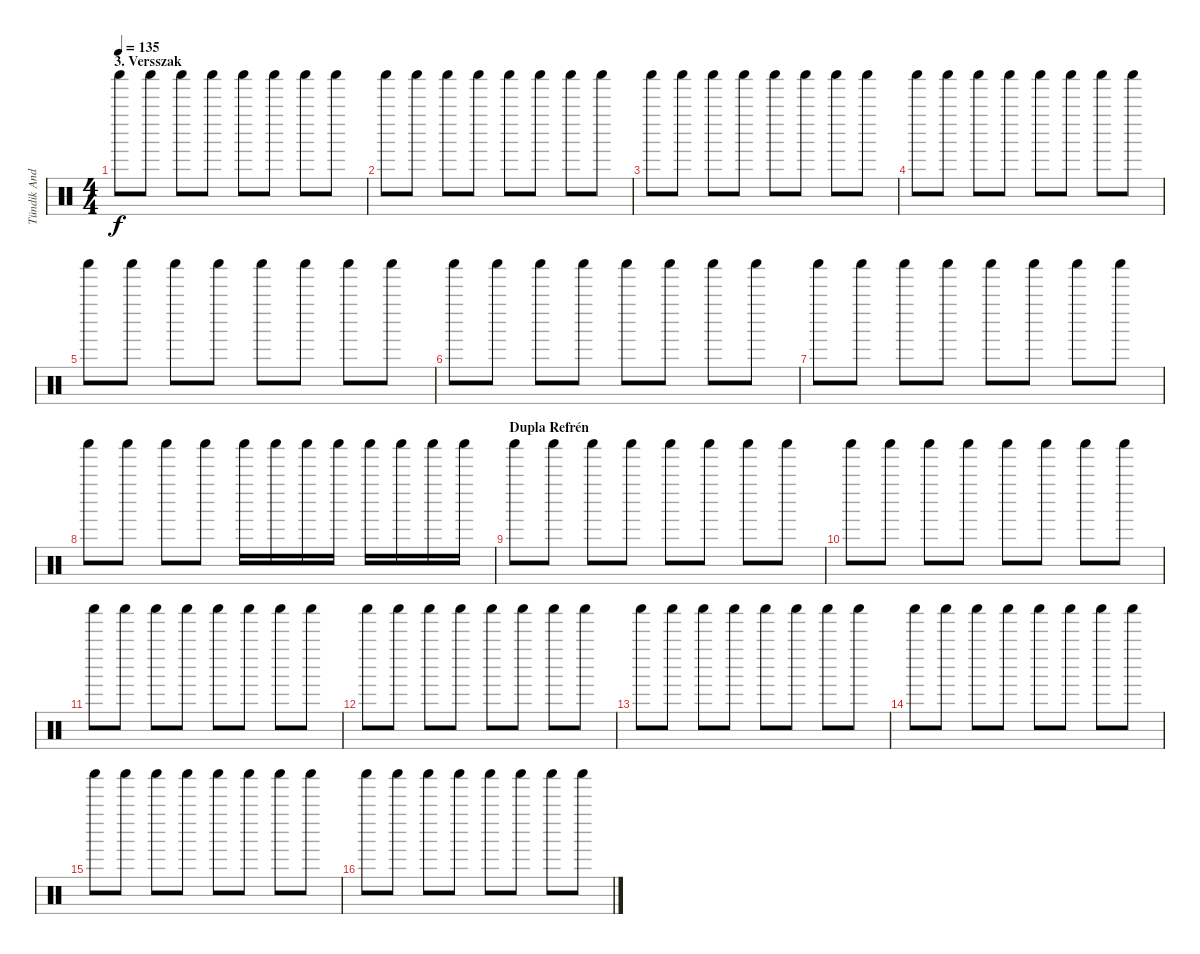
\track ("Tündik András - Shaker" "Tündik And") {instrument percussion}
\staff {score}
\articulation defaults
\ts (4 4)
\section ("" "3. Versszak")
\tempo 135
\clef neutral
\ks c "Shaker (hit)".8{dy f} "Shaker (hit)".8 "Shaker (hit)".8 "Shaker (hit)".8 "Shaker (hit)".8 "Shaker (hit)".8 "Shaker (hit)".8 "Shaker (hit)".8
|
"Shaker (hit)".8 "Shaker (hit)".8 "Shaker (hit)".8 "Shaker (hit)".8 "Shaker (hit)".8 "Shaker (hit)".8 "Shaker (hit)".8 "Shaker (hit)".8 |
"Shaker (hit)".8 "Shaker (hit)".8 "Shaker (hit)".8 "Shaker (hit)".8 "Shaker (hit)".8 "Shaker (hit)".8 "Shaker (hit)".8 "Shaker (hit)".8 |
"Shaker (hit)".8 "Shaker (hit)".8 "Shaker (hit)".8 "Shaker (hit)".8 "Shaker (hit)".8 "Shaker (hit)".8 "Shaker (hit)".8 "Shaker (hit)".8 |
"Shaker (hit)".8 "Shaker (hit)".8 "Shaker (hit)".8 "Shaker (hit)".8 "Shaker (hit)".8 "Shaker (hit)".8 "Shaker (hit)".8 "Shaker (hit)".8 |
"Shaker (hit)".8 "Shaker (hit)".8 "Shaker (hit)".8 "Shaker (hit)".8 "Shaker (hit)".8 "Shaker (hit)".8 "Shaker (hit)".8 "Shaker (hit)".8 |
"Shaker (hit)".8 "Shaker (hit)".8 "Shaker (hit)".8 "Shaker (hit)".8 "Shaker (hit)".8 "Shaker (hit)".8 "Shaker (hit)".8 "Shaker (hit)".8 |
"Shaker (hit)".8 "Shaker (hit)".8 "Shaker (hit)".8 "Shaker (hit)".8 "Shaker (hit)".16 "Shaker (hit)".16 "Shaker (hit)".16 "Shaker (hit)".16 "Shaker (hit)".16 "Shaker (hit)".16 "Shaker (hit)".16 "Shaker (hit)".16 |
\section ("" "Dupla Refrén")
"Shaker (hit)".8 "Shaker (hit)".8 "Shaker (hit)".8 "Shaker (hit)".8 "Shaker (hit)".8 "Shaker (hit)".8 "Shaker (hit)".8 "Shaker (hit)".8 |
"Shaker (hit)".8 "Shaker (hit)".8 "Shaker (hit)".8 "Shaker (hit)".8 "Shaker (hit)".8 "Shaker (hit)".8 "Shaker (hit)".8 "Shaker (hit)".8 |
"Shaker (hit)".8 "Shaker (hit)".8 "Shaker (hit)".8 "Shaker (hit)".8 "Shaker (hit)".8 "Shaker (hit)".8 "Shaker (hit)".8 "Shaker (hit)".8 |
"Shaker (hit)".8 "Shaker (hit)".8 "Shaker (hit)".8 "Shaker (hit)".8 "Shaker (hit)".8 "Shaker (hit)".8 "Shaker (hit)".8 "Shaker (hit)".8 |
"Shaker (hit)".8 "Shaker (hit)".8 "Shaker (hit)".8 "Shaker (hit)".8 "Shaker (hit)".8 "Shaker (hit)".8 "Shaker (hit)".8 "Shaker (hit)".8 |
"Shaker (hit)".8 "Shaker (hit)".8 "Shaker (hit)".8 "Shaker (hit)".8 "Shaker (hit)".8 "Shaker (hit)".8 "Shaker (hit)".8 "Shaker (hit)".8 |
"Shaker (hit)".8 "Shaker (hit)".8 "Shaker (hit)".8 "Shaker (hit)".8 "Shaker (hit)".8 "Shaker (hit)".8 "Shaker (hit)".8 "Shaker (hit)".8 |
"Shaker (hit)".8 "Shaker (hit)".8 "Shaker (hit)".8 "Shaker (hit)".8 "Shaker (hit)".8 "Shaker (hit)".8 "Shaker (hit)".8 "Shaker (hit)".8
